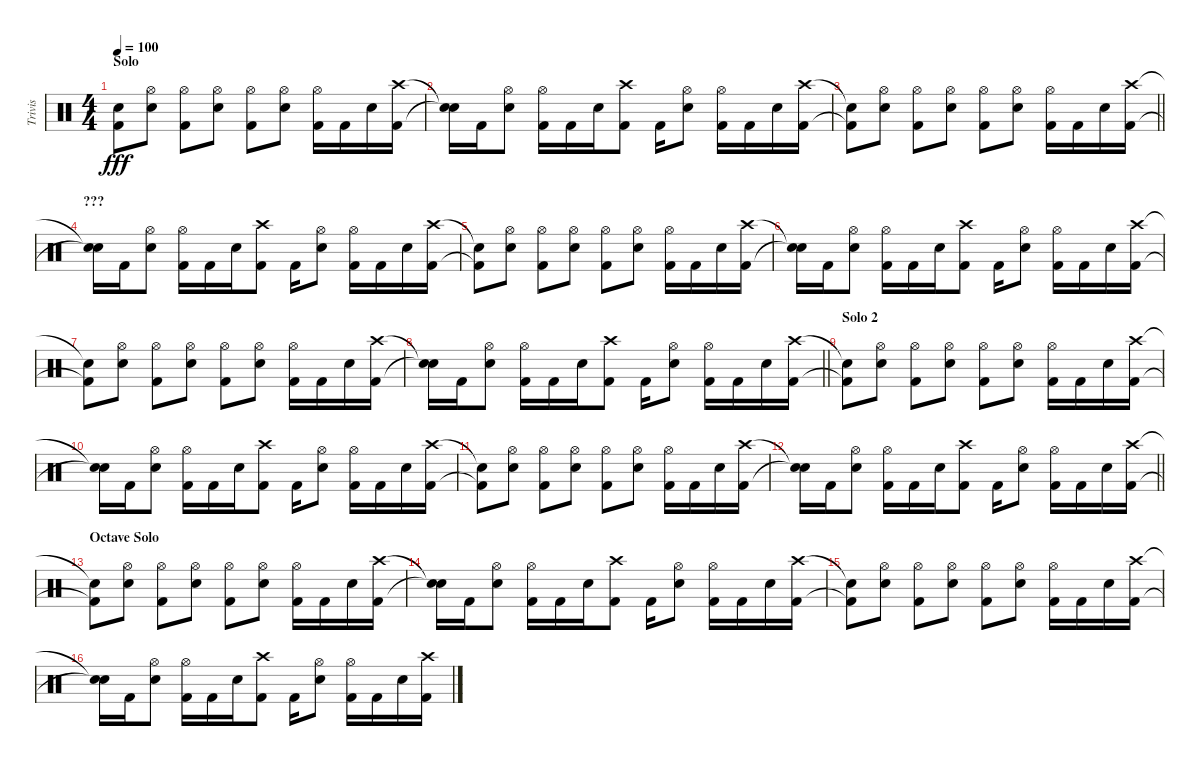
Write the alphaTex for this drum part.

\track ("Trivis" "Trivis") {instrument percussion}
\staff {score}
\articulation defaults
\ts (4 4)
\section ("" "Solo")
\tempo 100
\clef neutral
\ks c
("Snare (hit)"{t} "Kick (hit) 2"{t}).8{dy fff} ("Hi-Hat (open)" "Snare (hit) 2").8 ("Hi-Hat (open)" "Kick (hit) 2").8 ("Hi-Hat (open)" "Snare (hit) 2").8 ("Hi-Hat (open)" "Kick (hit) 2").8 ("Hi-Hat (open)" "Snare (hit) 2").8 ("Hi-Hat (open)" "Kick (hit) 2").16 "Kick (hit) 2".16 "Snare (hit) 2".16 ("Crash high (hit)" "Kick (hit) 2").16 |
("Snare (hit)"{t} "Snare (hit)"{t}).16 "Kick (hit) 2".16 ("Hi-Hat (open)" "Snare (hit) 2").8 ("Hi-Hat (open)" "Kick (hit) 2").16 "Kick (hit) 2".16 "Snare (hit) 2".16 ("Crash high (hit)" "Kick (hit) 2").8 "Kick (hit) 2".16 ("Hi-Hat (open)" "Snare (hit) 2").8 ("Hi-Hat (open)" "Kick (hit) 2").16 "Kick (hit) 2".16 "Snare (hit) 2".16 ("Crash high (hit)" "Kick (hit) 2").16 |
\barLineRight lightlight
("Snare (hit)"{t} "Kick (hit) 2"{t}).8 ("Hi-Hat (open)" "Snare (hit) 2").8 ("Hi-Hat (open)" "Kick (hit) 2").8 ("Hi-Hat (open)" "Snare (hit) 2").8 ("Hi-Hat (open)" "Kick (hit) 2").8 ("Hi-Hat (open)" "Snare (hit) 2").8 ("Hi-Hat (open)" "Kick (hit) 2").16 "Kick (hit) 2".16 "Snare (hit) 2".16 ("Crash high (hit)" "Kick (hit) 2").16 |
\section ("" "???")
("Snare (hit)"{t} "Snare (hit)"{t}).16 "Kick (hit) 2".16 ("Hi-Hat (open)" "Snare (hit) 2").8 ("Hi-Hat (open)" "Kick (hit) 2").16 "Kick (hit) 2".16 "Snare (hit) 2".16 ("Crash high (hit)" "Kick (hit) 2").8 "Kick (hit) 2".16 ("Hi-Hat (open)" "Snare (hit) 2").8 ("Hi-Hat (open)" "Kick (hit) 2").16 "Kick (hit) 2".16 "Snare (hit) 2".16 ("Crash high (hit)" "Kick (hit) 2").16 |
("Snare (hit)"{t} "Kick (hit) 2"{t}).8 ("Hi-Hat (open)" "Snare (hit) 2").8 ("Hi-Hat (open)" "Kick (hit) 2").8 ("Hi-Hat (open)" "Snare (hit) 2").8 ("Hi-Hat (open)" "Kick (hit) 2").8 ("Hi-Hat (open)" "Snare (hit) 2").8 ("Hi-Hat (open)" "Kick (hit) 2").16 "Kick (hit) 2".16 "Snare (hit) 2".16 ("Crash high (hit)" "Kick (hit) 2").16 |
("Snare (hit)"{t} "Snare (hit)"{t}).16 "Kick (hit) 2".16 ("Hi-Hat (open)" "Snare (hit) 2").8 ("Hi-Hat (open)" "Kick (hit) 2").16 "Kick (hit) 2".16 "Snare (hit) 2".16 ("Crash high (hit)" "Kick (hit) 2").8 "Kick (hit) 2".16 ("Hi-Hat (open)" "Snare (hit) 2").8 ("Hi-Hat (open)" "Kick (hit) 2").16 "Kick (hit) 2".16 "Snare (hit) 2".16 ("Crash high (hit)" "Kick (hit) 2").16 |
("Snare (hit)"{t} "Kick (hit) 2"{t}).8 ("Hi-Hat (open)" "Snare (hit) 2").8 ("Hi-Hat (open)" "Kick (hit) 2").8 ("Hi-Hat (open)" "Snare (hit) 2").8 ("Hi-Hat (open)" "Kick (hit) 2").8 ("Hi-Hat (open)" "Snare (hit) 2").8 ("Hi-Hat (open)" "Kick (hit) 2").16 "Kick (hit) 2".16 "Snare (hit) 2".16 ("Crash high (hit)" "Kick (hit) 2").16 |
\barLineRight lightlight
("Snare (hit)"{t} "Snare (hit)"{t}).16 "Kick (hit) 2".16 ("Hi-Hat (open)" "Snare (hit) 2").8 ("Hi-Hat (open)" "Kick (hit) 2").16 "Kick (hit) 2".16 "Snare (hit) 2".16 ("Crash high (hit)" "Kick (hit) 2").8 "Kick (hit) 2".16 ("Hi-Hat (open)" "Snare (hit) 2").8 ("Hi-Hat (open)" "Kick (hit) 2").16 "Kick (hit) 2".16 "Snare (hit) 2".16 ("Crash high (hit)" "Kick (hit) 2").16 |
\section ("" "Solo 2")
("Snare (hit)"{t} "Kick (hit) 2"{t}).8 ("Hi-Hat (open)" "Snare (hit) 2").8 ("Hi-Hat (open)" "Kick (hit) 2").8 ("Hi-Hat (open)" "Snare (hit) 2").8 ("Hi-Hat (open)" "Kick (hit) 2").8 ("Hi-Hat (open)" "Snare (hit) 2").8 ("Hi-Hat (open)" "Kick (hit) 2").16 "Kick (hit) 2".16 "Snare (hit) 2".16 ("Crash high (hit)" "Kick (hit) 2").16 |
("Snare (hit)"{t} "Snare (hit)"{t}).16 "Kick (hit) 2".16 ("Hi-Hat (open)" "Snare (hit) 2").8 ("Hi-Hat (open)" "Kick (hit) 2").16 "Kick (hit) 2".16 "Snare (hit) 2".16 ("Crash high (hit)" "Kick (hit) 2").8 "Kick (hit) 2".16 ("Hi-Hat (open)" "Snare (hit) 2").8 ("Hi-Hat (open)" "Kick (hit) 2").16 "Kick (hit) 2".16 "Snare (hit) 2".16 ("Crash high (hit)" "Kick (hit) 2").16 |
("Snare (hit)"{t} "Kick (hit) 2"{t}).8 ("Hi-Hat (open)" "Snare (hit) 2").8 ("Hi-Hat (open)" "Kick (hit) 2").8 ("Hi-Hat (open)" "Snare (hit) 2").8 ("Hi-Hat (open)" "Kick (hit) 2").8 ("Hi-Hat (open)" "Snare (hit) 2").8 ("Hi-Hat (open)" "Kick (hit) 2").16 "Kick (hit) 2".16 "Snare (hit) 2".16 ("Crash high (hit)" "Kick (hit) 2").16 |
\barLineRight lightlight
("Snare (hit)"{t} "Snare (hit)"{t}).16 "Kick (hit) 2".16 ("Hi-Hat (open)" "Snare (hit) 2").8 ("Hi-Hat (open)" "Kick (hit) 2").16 "Kick (hit) 2".16 "Snare (hit) 2".16 ("Crash high (hit)" "Kick (hit) 2").8 "Kick (hit) 2".16 ("Hi-Hat (open)" "Snare (hit) 2").8 ("Hi-Hat (open)" "Kick (hit) 2").16 "Kick (hit) 2".16 "Snare (hit) 2".16 ("Crash high (hit)" "Kick (hit) 2").16 |
\section ("" "Octave Solo")
("Snare (hit)"{t} "Kick (hit) 2"{t}).8 ("Hi-Hat (open)" "Snare (hit) 2").8 ("Hi-Hat (open)" "Kick (hit) 2").8 ("Hi-Hat (open)" "Snare (hit) 2").8 ("Hi-Hat (open)" "Kick (hit) 2").8 ("Hi-Hat (open)" "Snare (hit) 2").8 ("Hi-Hat (open)" "Kick (hit) 2").16 "Kick (hit) 2".16 "Snare (hit) 2".16 ("Crash high (hit)" "Kick (hit) 2").16 |
("Snare (hit)"{t} "Snare (hit)"{t}).16 "Kick (hit) 2".16 ("Hi-Hat (open)" "Snare (hit) 2").8 ("Hi-Hat (open)" "Kick (hit) 2").16 "Kick (hit) 2".16 "Snare (hit) 2".16 ("Crash high (hit)" "Kick (hit) 2").8 "Kick (hit) 2".16 ("Hi-Hat (open)" "Snare (hit) 2").8 ("Hi-Hat (open)" "Kick (hit) 2").16 "Kick (hit) 2".16 "Snare (hit) 2".16 ("Crash high (hit)" "Kick (hit) 2").16 |
("Snare (hit)"{t} "Kick (hit) 2"{t}).8 ("Hi-Hat (open)" "Snare (hit) 2").8 ("Hi-Hat (open)" "Kick (hit) 2").8 ("Hi-Hat (open)" "Snare (hit) 2").8 ("Hi-Hat (open)" "Kick (hit) 2").8 ("Hi-Hat (open)" "Snare (hit) 2").8 ("Hi-Hat (open)" "Kick (hit) 2").16 "Kick (hit) 2".16 "Snare (hit) 2".16 ("Crash high (hit)" "Kick (hit) 2").16 |
("Snare (hit)"{t} "Snare (hit)"{t}).16 "Kick (hit) 2".16 ("Hi-Hat (open)" "Snare (hit) 2").8 ("Hi-Hat (open)" "Kick (hit) 2").16 "Kick (hit) 2".16 "Snare (hit) 2".16 ("Crash high (hit)" "Kick (hit) 2").8 "Kick (hit) 2".16 ("Hi-Hat (open)" "Snare (hit) 2").8 ("Hi-Hat (open)" "Kick (hit) 2").16 "Kick (hit) 2".16 "Snare (hit) 2".16 ("Crash high (hit)" "Kick (hit) 2").16
